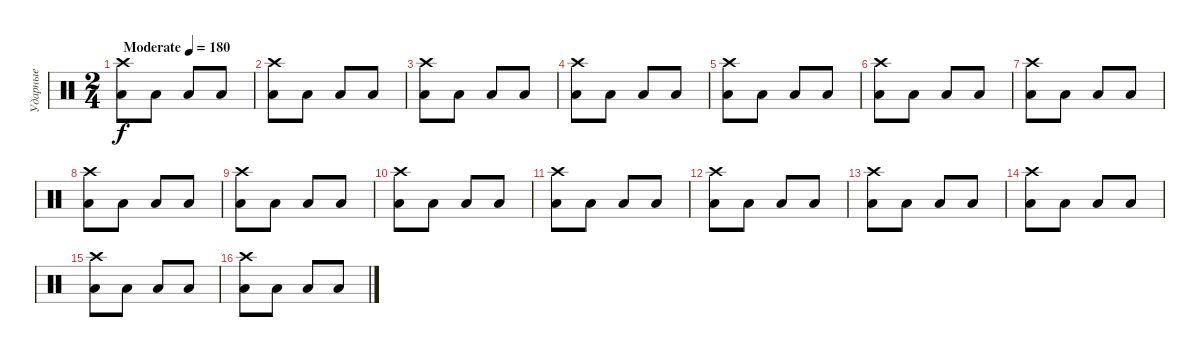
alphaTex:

\track ("Ударные" "Ударные") {instrument percussion}
\staff {score}
\articulation defaults
\ts (2 4)
\tempo (180 "Moderate")
\clef neutral
\ks c
("Low Tom (hit)" "Crash high (hit)").8{dy f} "Low Tom (hit)".8 "Low Tom (hit)".8 "Low Tom (hit)".8 |
("Low Tom (hit)" "Crash high (hit)").8 "Low Tom (hit)".8 "Low Tom (hit)".8 "Low Tom (hit)".8 |
("Low Tom (hit)" "Crash high (hit)").8 "Low Tom (hit)".8 "Low Tom (hit)".8 "Low Tom (hit)".8 |
("Low Tom (hit)" "Crash high (hit)").8 "Low Tom (hit)".8 "Low Tom (hit)".8 "Low Tom (hit)".8 |
("Low Tom (hit)" "Crash high (hit)").8 "Low Tom (hit)".8 "Low Tom (hit)".8 "Low Tom (hit)".8 |
("Low Tom (hit)" "Crash high (hit)").8 "Low Tom (hit)".8 "Low Tom (hit)".8 "Low Tom (hit)".8 |
("Low Tom (hit)" "Crash high (hit)").8 "Low Tom (hit)".8 "Low Tom (hit)".8 "Low Tom (hit)".8 |
("Low Tom (hit)" "Crash high (hit)").8 "Low Tom (hit)".8 "Low Tom (hit)".8 "Low Tom (hit)".8 |
("Low Tom (hit)" "Crash high (hit)").8 "Low Tom (hit)".8 "Low Tom (hit)".8 "Low Tom (hit)".8 |
("Low Tom (hit)" "Crash high (hit)").8 "Low Tom (hit)".8 "Low Tom (hit)".8 "Low Tom (hit)".8 |
("Low Tom (hit)" "Crash high (hit)").8 "Low Tom (hit)".8 "Low Tom (hit)".8 "Low Tom (hit)".8 |
("Low Tom (hit)" "Crash high (hit)").8 "Low Tom (hit)".8 "Low Tom (hit)".8 "Low Tom (hit)".8 |
("Low Tom (hit)" "Crash high (hit)").8 "Low Tom (hit)".8 "Low Tom (hit)".8 "Low Tom (hit)".8 |
("Low Tom (hit)" "Crash high (hit)").8 "Low Tom (hit)".8 "Low Tom (hit)".8 "Low Tom (hit)".8 |
("Low Tom (hit)" "Crash high (hit)").8 "Low Tom (hit)".8 "Low Tom (hit)".8 "Low Tom (hit)".8 |
("Low Tom (hit)" "Crash high (hit)").8 "Low Tom (hit)".8 "Low Tom (hit)".8 "Low Tom (hit)".8
